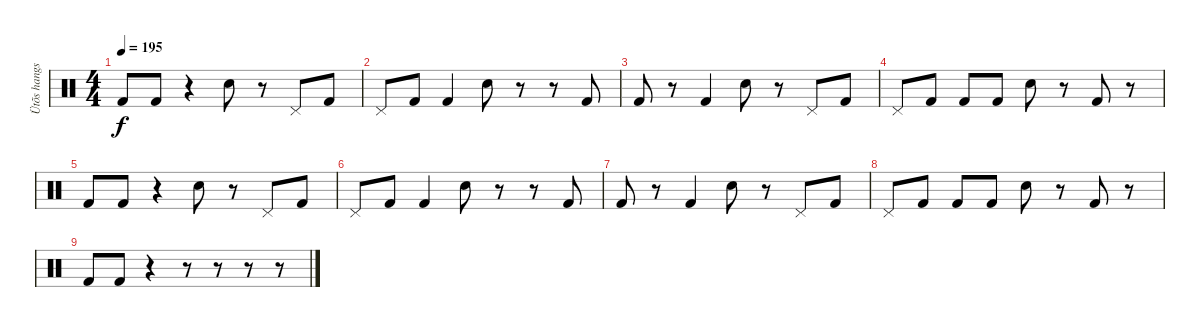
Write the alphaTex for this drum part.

\track ("Ütõs hangszer" "Ütõs hangs") {instrument percussion}
\staff {score}
\articulation defaults
\ts (4 4)
\tempo 195
\clef neutral
\ks c "Kick (hit) 2".8{dy f} "Kick (hit) 2".8
r.4 "Electric Snare (hit)".8 r.8 "Pedal Hi-Hat (hit)".8 "Kick (hit) 2".8 |
"Pedal Hi-Hat (hit)".8 "Kick (hit) 2".8 "Kick (hit) 2".4 "Electric Snare (hit)".8 r.8 r.8 "Kick (hit) 2".8 |
"Kick (hit) 2".8 r.8 "Kick (hit) 2".4 "Electric Snare (hit)".8 r.8 "Pedal Hi-Hat (hit)".8 "Kick (hit) 2".8 |
"Pedal Hi-Hat (hit)".8 "Kick (hit) 2".8 "Kick (hit) 2".8 "Kick (hit) 2".8 "Electric Snare (hit)".8 r.8 "Kick (hit) 2".8 r.8 |
"Kick (hit) 2".8 "Kick (hit) 2".8 r.4 "Electric Snare (hit)".8 r.8 "Pedal Hi-Hat (hit)".8 "Kick (hit) 2".8 |
"Pedal Hi-Hat (hit)".8 "Kick (hit) 2".8 "Kick (hit) 2".4 "Electric Snare (hit)".8 r.8 r.8 "Kick (hit) 2".8 |
"Kick (hit) 2".8 r.8 "Kick (hit) 2".4 "Electric Snare (hit)".8 r.8 "Pedal Hi-Hat (hit)".8 "Kick (hit) 2".8 |
"Pedal Hi-Hat (hit)".8 "Kick (hit) 2".8 "Kick (hit) 2".8 "Kick (hit) 2".8 "Electric Snare (hit)".8 r.8 "Kick (hit) 2".8 r.8 |
"Kick (hit) 2".8 "Kick (hit) 2".8 r.4 r.8 r.8 r.8 r.8
